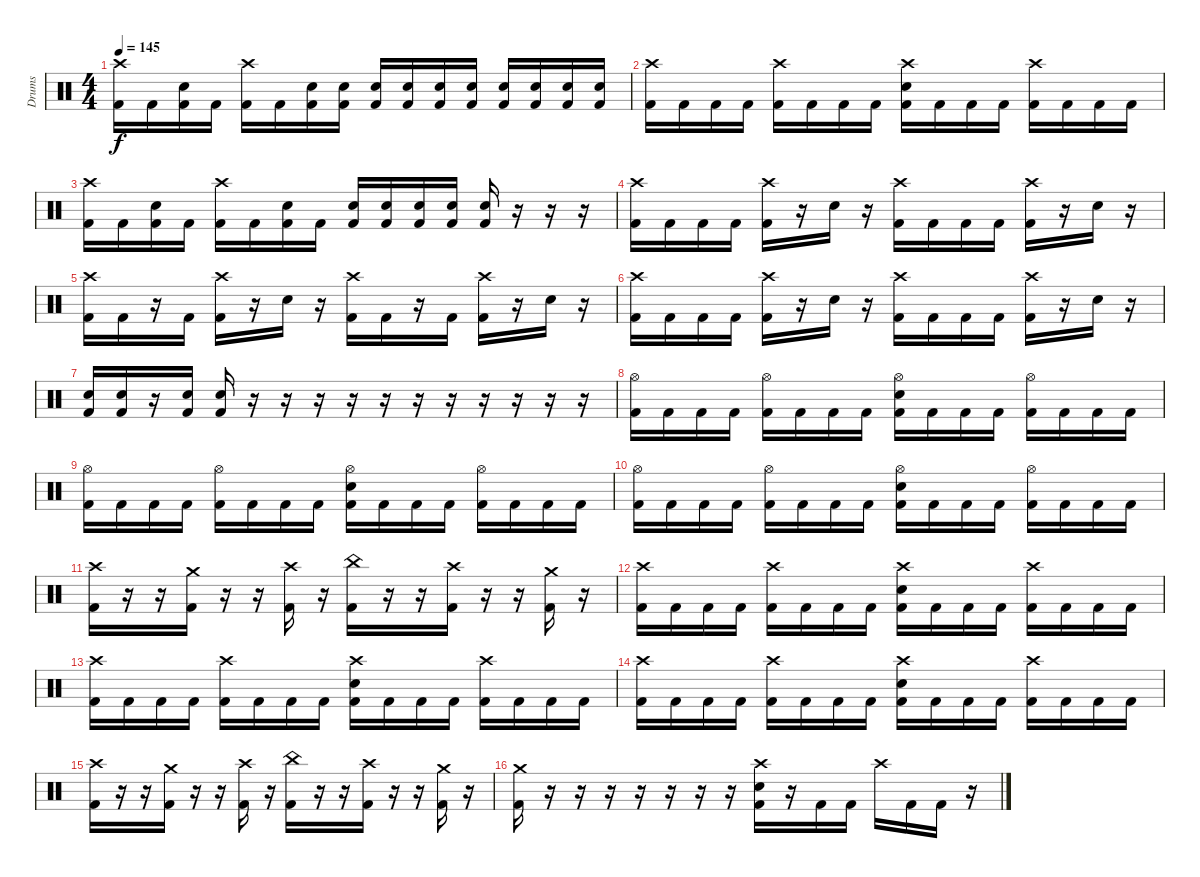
\track ("Drums" "Drums") {instrument percussion}
\staff {score}
\articulation defaults
\ts (4 4)
\tempo 145
\clef neutral
\ks c
("Crash high (hit)" "Kick (hit) 2").16{dy f} "Kick (hit) 2".16 ("Electric Snare (hit)" "Kick (hit) 2").16 "Kick (hit) 2".16 ("Crash high (hit)" "Kick (hit) 2").16 "Kick (hit) 2".16 ("Electric Snare (hit)" "Kick (hit) 2").16 ("Electric Snare (hit)" "Kick (hit) 2").16 ("Electric Snare (hit)" "Kick (hit) 2").16 ("Electric Snare (hit)" "Kick (hit) 2").16 ("Electric Snare (hit)" "Kick (hit) 2").16 ("Electric Snare (hit)" "Kick (hit) 2").16 ("Electric Snare (hit)" "Kick (hit) 2").16 ("Electric Snare (hit)" "Kick (hit) 2").16 ("Electric Snare (hit)" "Kick (hit) 2").16 ("Electric Snare (hit)" "Kick (hit) 2").16 |
("Crash high (hit)" "Kick (hit) 2").16 "Kick (hit) 2".16 "Kick (hit) 2".16 "Kick (hit) 2".16 ("Crash high (hit)" "Kick (hit) 2").16 "Kick (hit) 2".16 "Kick (hit) 2".16 "Kick (hit) 2".16 ("Crash high (hit)" "Electric Snare (hit)" "Kick (hit) 2").16 "Kick (hit) 2".16 "Kick (hit) 2".16 "Kick (hit) 2".16 ("Crash high (hit)" "Kick (hit) 2").16 "Kick (hit) 2".16 "Kick (hit) 2".16 "Kick (hit) 2".16 |
("Crash high (hit)" "Kick (hit) 2").16 "Kick (hit) 2".16 ("Electric Snare (hit)" "Kick (hit) 2").16 "Kick (hit) 2".16 ("Crash high (hit)" "Kick (hit) 2").16 "Kick (hit) 2".16 ("Electric Snare (hit)" "Kick (hit) 2").16 "Kick (hit) 2".16 ("Electric Snare (hit)" "Kick (hit) 2").16 ("Electric Snare (hit)" "Kick (hit) 2").16 ("Electric Snare (hit)" "Kick (hit) 2").16 ("Electric Snare (hit)" "Kick (hit) 2").16 ("Electric Snare (hit)" "Kick (hit) 2").16 r.16 r.16 r.16 |
("Crash high (hit)" "Kick (hit) 2").16 "Kick (hit) 2".16 "Kick (hit) 2".16 "Kick (hit) 2".16 ("Crash high (hit)" "Kick (hit) 2").16 r.16 "Electric Snare (hit)".16 r.16 ("Crash high (hit)" "Kick (hit) 2").16 "Kick (hit) 2".16 "Kick (hit) 2".16 "Kick (hit) 2".16 ("Crash high (hit)" "Kick (hit) 2").16 r.16 "Electric Snare (hit)".16 r.16 |
("Crash high (hit)" "Kick (hit) 2").16 "Kick (hit) 2".16 r.16 "Kick (hit) 2".16 ("Crash high (hit)" "Kick (hit) 2").16 r.16 "Electric Snare (hit)".16 r.16 ("Crash high (hit)" "Kick (hit) 2").16 "Kick (hit) 2".16 r.16 "Kick (hit) 2".16 ("Crash high (hit)" "Kick (hit) 2").16 r.16 "Electric Snare (hit)".16 r.16 |
("Crash high (hit)" "Kick (hit) 2").16 "Kick (hit) 2".16 "Kick (hit) 2".16 "Kick (hit) 2".16 ("Crash high (hit)" "Kick (hit) 2").16 r.16 "Electric Snare (hit)".16 r.16 ("Crash high (hit)" "Kick (hit) 2").16 "Kick (hit) 2".16 "Kick (hit) 2".16 "Kick (hit) 2".16 ("Crash high (hit)" "Kick (hit) 2").16 r.16 "Electric Snare (hit)".16 r.16 |
("Electric Snare (hit)" "Kick (hit) 2").16 ("Electric Snare (hit)" "Kick (hit) 2").16 r.16 ("Electric Snare (hit)" "Kick (hit) 2").16 ("Electric Snare (hit)" "Kick (hit) 2").16 r.16 r.16 r.16 r.16 r.16 r.16 r.16 r.16 r.16 r.16 r.16 |
("Hi-Hat (open)" "Kick (hit) 2").16 "Kick (hit) 2".16 "Kick (hit) 2".16 "Kick (hit) 2".16 ("Hi-Hat (open)" "Kick (hit) 2").16 "Kick (hit) 2".16 "Kick (hit) 2".16 "Kick (hit) 2".16 ("Hi-Hat (open)" "Electric Snare (hit)" "Kick (hit) 2").16 "Kick (hit) 2".16 "Kick (hit) 2".16 "Kick (hit) 2".16 ("Hi-Hat (open)" "Kick (hit) 2").16 "Kick (hit) 2".16 "Kick (hit) 2".16 "Kick (hit) 2".16 |
("Hi-Hat (open)" "Kick (hit) 2").16 "Kick (hit) 2".16 "Kick (hit) 2".16 "Kick (hit) 2".16 ("Hi-Hat (open)" "Kick (hit) 2").16 "Kick (hit) 2".16 "Kick (hit) 2".16 "Kick (hit) 2".16 ("Hi-Hat (open)" "Electric Snare (hit)" "Kick (hit) 2").16 "Kick (hit) 2".16 "Kick (hit) 2".16 "Kick (hit) 2".16 ("Hi-Hat (open)" "Kick (hit) 2").16 "Kick (hit) 2".16 "Kick (hit) 2".16 "Kick (hit) 2".16 |
("Hi-Hat (open)" "Kick (hit) 2").16 "Kick (hit) 2".16 "Kick (hit) 2".16 "Kick (hit) 2".16 ("Hi-Hat (open)" "Kick (hit) 2").16 "Kick (hit) 2".16 "Kick (hit) 2".16 "Kick (hit) 2".16 ("Hi-Hat (open)" "Electric Snare (hit)" "Kick (hit) 2").16 "Kick (hit) 2".16 "Kick (hit) 2".16 "Kick (hit) 2".16 ("Hi-Hat (open)" "Kick (hit) 2").16 "Kick (hit) 2".16 "Kick (hit) 2".16 "Kick (hit) 2".16 |
("Crash high (hit)" "Kick (hit) 2").16 r.16 r.16 ("Crash medium (hit)" "Kick (hit) 2").16 r.16 r.16 ("Crash high (hit)" "Kick (hit) 2").16 r.16 ("China (hit)" "Kick (hit) 2").16 r.16 r.16 ("Crash high (hit)" "Kick (hit) 2").16 r.16 r.16 ("Crash medium (hit)" "Kick (hit) 2").16 r.16 |
("Crash high (hit)" "Kick (hit) 2").16 "Kick (hit) 2".16 "Kick (hit) 2".16 "Kick (hit) 2".16 ("Crash high (hit)" "Kick (hit) 2").16 "Kick (hit) 2".16 "Kick (hit) 2".16 "Kick (hit) 2".16 ("Crash high (hit)" "Electric Snare (hit)" "Kick (hit) 2").16 "Kick (hit) 2".16 "Kick (hit) 2".16 "Kick (hit) 2".16 ("Crash high (hit)" "Kick (hit) 2").16 "Kick (hit) 2".16 "Kick (hit) 2".16 "Kick (hit) 2".16 |
("Crash high (hit)" "Kick (hit) 2").16 "Kick (hit) 2".16 "Kick (hit) 2".16 "Kick (hit) 2".16 ("Crash high (hit)" "Kick (hit) 2").16 "Kick (hit) 2".16 "Kick (hit) 2".16 "Kick (hit) 2".16 ("Crash high (hit)" "Electric Snare (hit)" "Kick (hit) 2").16 "Kick (hit) 2".16 "Kick (hit) 2".16 "Kick (hit) 2".16 ("Crash high (hit)" "Kick (hit) 2").16 "Kick (hit) 2".16 "Kick (hit) 2".16 "Kick (hit) 2".16 |
("Crash high (hit)" "Kick (hit) 2").16 "Kick (hit) 2".16 "Kick (hit) 2".16 "Kick (hit) 2".16 ("Crash high (hit)" "Kick (hit) 2").16 "Kick (hit) 2".16 "Kick (hit) 2".16 "Kick (hit) 2".16 ("Crash high (hit)" "Electric Snare (hit)" "Kick (hit) 2").16 "Kick (hit) 2".16 "Kick (hit) 2".16 "Kick (hit) 2".16 ("Crash high (hit)" "Kick (hit) 2").16 "Kick (hit) 2".16 "Kick (hit) 2".16 "Kick (hit) 2".16 |
("Crash high (hit)" "Kick (hit) 2").16 r.16 r.16 ("Crash medium (hit)" "Kick (hit) 2").16 r.16 r.16 ("Crash high (hit)" "Kick (hit) 2").16 r.16 ("China (hit)" "Kick (hit) 2").16 r.16 r.16 ("Crash high (hit)" "Kick (hit) 2").16 r.16 r.16 ("Crash medium (hit)" "Kick (hit) 2").16 r.16 |
("Crash medium (hit)" "Kick (hit) 2").16 r.16 r.16 r.16 r.16 r.16 r.16 r.16 ("Crash high (hit)" "Electric Snare (hit)" "Kick (hit) 2").16 r.16 "Kick (hit) 2".16 "Kick (hit) 2".16 "Crash high (hit)".16 "Kick (hit) 2".16 "Kick (hit) 2".16 r.16
